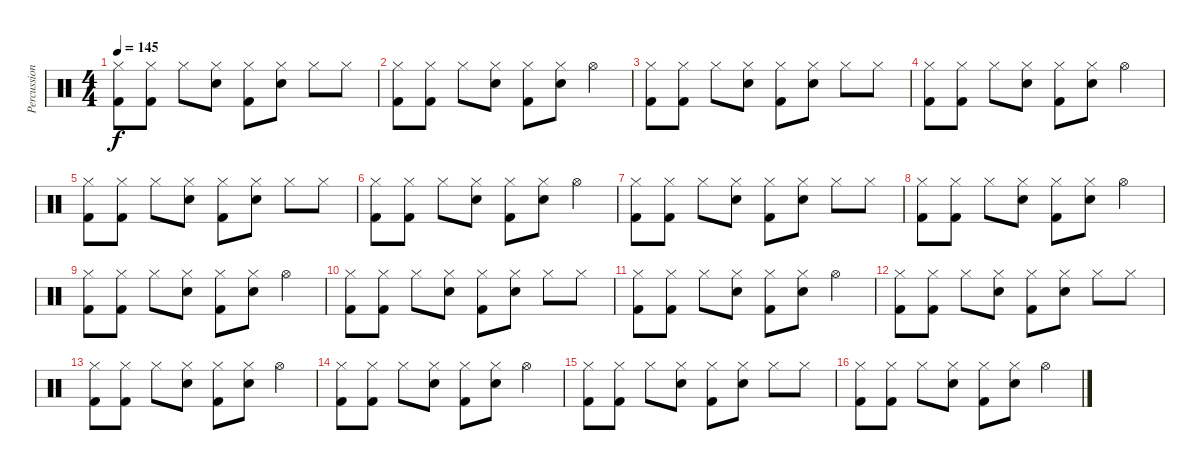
\track ("Percussion" "Percussion") {instrument percussion}
\staff {score}
\articulation defaults
\ts (4 4)
\tempo 145
\clef neutral
\ks c
("Hi-Hat (closed)" "Kick (hit) 2").8{dy f} ("Hi-Hat (closed)" "Kick (hit) 2").8 "Hi-Hat (closed)".8 ("Hi-Hat (closed)" "Electric Snare (hit)").8 ("Hi-Hat (closed)" "Kick (hit) 2").8 ("Hi-Hat (closed)" "Electric Snare (hit)").8 "Hi-Hat (closed)".8 "Hi-Hat (closed)".8 |
("Hi-Hat (closed)" "Kick (hit) 2").8 ("Hi-Hat (closed)" "Kick (hit) 2").8 "Hi-Hat (closed)".8 ("Hi-Hat (closed)" "Electric Snare (hit)").8 ("Hi-Hat (closed)" "Kick (hit) 2").8 ("Hi-Hat (closed)" "Electric Snare (hit)").8 "Hi-Hat (open)".4 |
("Hi-Hat (closed)" "Kick (hit) 2").8 ("Hi-Hat (closed)" "Kick (hit) 2").8 "Hi-Hat (closed)".8 ("Hi-Hat (closed)" "Electric Snare (hit)").8 ("Hi-Hat (closed)" "Kick (hit) 2").8 ("Hi-Hat (closed)" "Electric Snare (hit)").8 "Hi-Hat (closed)".8 "Hi-Hat (closed)".8 |
("Hi-Hat (closed)" "Kick (hit) 2").8 ("Hi-Hat (closed)" "Kick (hit) 2").8 "Hi-Hat (closed)".8 ("Hi-Hat (closed)" "Electric Snare (hit)").8 ("Hi-Hat (closed)" "Kick (hit) 2").8 ("Hi-Hat (closed)" "Electric Snare (hit)").8 "Hi-Hat (open)".4 |
("Hi-Hat (closed)" "Kick (hit) 2").8 ("Hi-Hat (closed)" "Kick (hit) 2").8 "Hi-Hat (closed)".8 ("Hi-Hat (closed)" "Electric Snare (hit)").8 ("Hi-Hat (closed)" "Kick (hit) 2").8 ("Hi-Hat (closed)" "Electric Snare (hit)").8 "Hi-Hat (closed)".8 "Hi-Hat (closed)".8 |
("Hi-Hat (closed)" "Kick (hit) 2").8 ("Hi-Hat (closed)" "Kick (hit) 2").8 "Hi-Hat (closed)".8 ("Hi-Hat (closed)" "Electric Snare (hit)").8 ("Hi-Hat (closed)" "Kick (hit) 2").8 ("Hi-Hat (closed)" "Electric Snare (hit)").8 "Hi-Hat (open)".4 |
("Hi-Hat (closed)" "Kick (hit) 2").8 ("Hi-Hat (closed)" "Kick (hit) 2").8 "Hi-Hat (closed)".8 ("Hi-Hat (closed)" "Electric Snare (hit)").8 ("Hi-Hat (closed)" "Kick (hit) 2").8 ("Hi-Hat (closed)" "Electric Snare (hit)").8 "Hi-Hat (closed)".8 "Hi-Hat (closed)".8 |
("Hi-Hat (closed)" "Kick (hit) 2").8 ("Hi-Hat (closed)" "Kick (hit) 2").8 "Hi-Hat (closed)".8 ("Hi-Hat (closed)" "Electric Snare (hit)").8 ("Hi-Hat (closed)" "Kick (hit) 2").8 ("Hi-Hat (closed)" "Electric Snare (hit)").8 "Hi-Hat (open)".4 |
("Hi-Hat (closed)" "Kick (hit) 2").8 ("Hi-Hat (closed)" "Kick (hit) 2").8 "Hi-Hat (closed)".8 ("Hi-Hat (closed)" "Electric Snare (hit)").8 ("Hi-Hat (closed)" "Kick (hit) 2").8 ("Hi-Hat (closed)" "Electric Snare (hit)").8 "Hi-Hat (open)".4 |
("Hi-Hat (closed)" "Kick (hit) 2").8 ("Hi-Hat (closed)" "Kick (hit) 2").8 "Hi-Hat (closed)".8 ("Hi-Hat (closed)" "Electric Snare (hit)").8 ("Hi-Hat (closed)" "Kick (hit) 2").8 ("Hi-Hat (closed)" "Electric Snare (hit)").8 "Hi-Hat (closed)".8 "Hi-Hat (closed)".8 |
("Hi-Hat (closed)" "Kick (hit) 2").8 ("Hi-Hat (closed)" "Kick (hit) 2").8 "Hi-Hat (closed)".8 ("Hi-Hat (closed)" "Electric Snare (hit)").8 ("Hi-Hat (closed)" "Kick (hit) 2").8 ("Hi-Hat (closed)" "Electric Snare (hit)").8 "Hi-Hat (open)".4 |
("Hi-Hat (closed)" "Kick (hit) 2").8 ("Hi-Hat (closed)" "Kick (hit) 2").8 "Hi-Hat (closed)".8 ("Hi-Hat (closed)" "Electric Snare (hit)").8 ("Hi-Hat (closed)" "Kick (hit) 2").8 ("Hi-Hat (closed)" "Electric Snare (hit)").8 "Hi-Hat (closed)".8 "Hi-Hat (closed)".8 |
("Hi-Hat (closed)" "Kick (hit) 2").8 ("Hi-Hat (closed)" "Kick (hit) 2").8 "Hi-Hat (closed)".8 ("Hi-Hat (closed)" "Electric Snare (hit)").8 ("Hi-Hat (closed)" "Kick (hit) 2").8 ("Hi-Hat (closed)" "Electric Snare (hit)").8 "Hi-Hat (open)".4 |
("Hi-Hat (closed)" "Kick (hit) 2").8 ("Hi-Hat (closed)" "Kick (hit) 2").8 "Hi-Hat (closed)".8 ("Hi-Hat (closed)" "Electric Snare (hit)").8 ("Hi-Hat (closed)" "Kick (hit) 2").8 ("Hi-Hat (closed)" "Electric Snare (hit)").8 "Hi-Hat (open)".4 |
("Hi-Hat (closed)" "Kick (hit) 2").8 ("Hi-Hat (closed)" "Kick (hit) 2").8 "Hi-Hat (closed)".8 ("Hi-Hat (closed)" "Electric Snare (hit)").8 ("Hi-Hat (closed)" "Kick (hit) 2").8 ("Hi-Hat (closed)" "Electric Snare (hit)").8 "Hi-Hat (closed)".8 "Hi-Hat (closed)".8 |
("Hi-Hat (closed)" "Kick (hit) 2").8 ("Hi-Hat (closed)" "Kick (hit) 2").8 "Hi-Hat (closed)".8 ("Hi-Hat (closed)" "Electric Snare (hit)").8 ("Hi-Hat (closed)" "Kick (hit) 2").8 ("Hi-Hat (closed)" "Electric Snare (hit)").8 "Hi-Hat (open)".4
